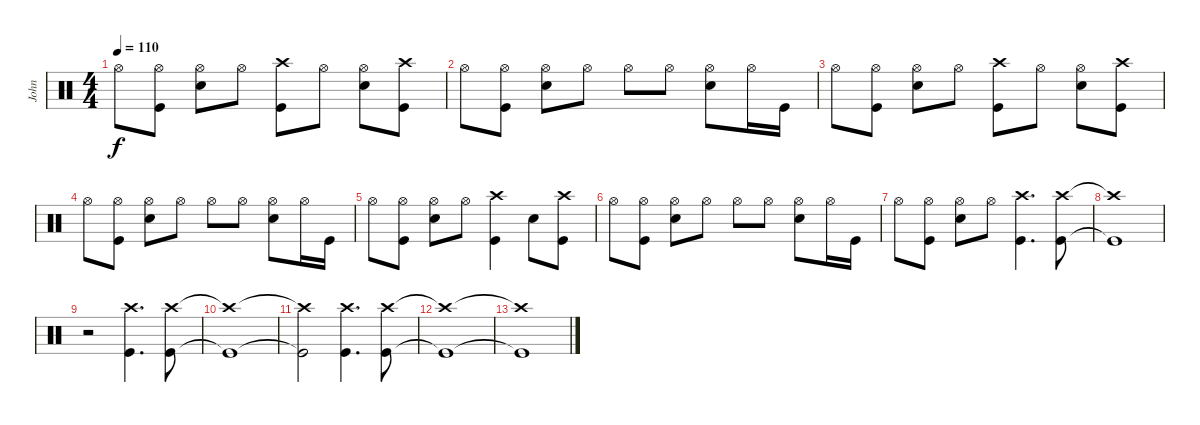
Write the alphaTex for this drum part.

\track ("John" "John") {instrument percussion}
\staff {score}
\articulation defaults
\ts (4 4)
\tempo 110
\clef neutral
\ks c "Hi-Hat (open)".8{dy f}
("Hi-Hat (open)" "Kick (hit)").8 ("Hi-Hat (open)" "Snare (hit) 2").8 "Hi-Hat (open)".8 ("Crash high (hit)" "Kick (hit)").8 "Hi-Hat (open)".8 ("Hi-Hat (open)" "Snare (hit) 2").8 ("Crash high (hit)" "Kick (hit)").8 |
"Hi-Hat (open)".8 ("Hi-Hat (open)" "Kick (hit)").8 ("Hi-Hat (open)" "Snare (hit) 2").8 "Hi-Hat (open)".8 "Hi-Hat (open)".8 "Hi-Hat (open)".8 ("Hi-Hat (open)" "Snare (hit) 2").8 "Hi-Hat (open)".16 "Kick (hit)".16 |
"Hi-Hat (open)".8 ("Hi-Hat (open)" "Kick (hit)").8 ("Hi-Hat (open)" "Snare (hit) 2").8 "Hi-Hat (open)".8 ("Crash high (hit)" "Kick (hit)").8 "Hi-Hat (open)".8 ("Hi-Hat (open)" "Snare (hit) 2").8 ("Crash high (hit)" "Kick (hit)").8 |
"Hi-Hat (open)".8 ("Hi-Hat (open)" "Kick (hit)").8 ("Hi-Hat (open)" "Snare (hit) 2").8 "Hi-Hat (open)".8 "Hi-Hat (open)".8 "Hi-Hat (open)".8 ("Hi-Hat (open)" "Snare (hit) 2").8 "Hi-Hat (open)".16 "Kick (hit)".16 |
"Hi-Hat (open)".8 ("Hi-Hat (open)" "Kick (hit)").8 ("Hi-Hat (open)" "Snare (hit) 2").8 "Hi-Hat (open)".8 ("Crash high (hit)" "Kick (hit)").4 "Snare (hit) 2".8 ("Crash high (hit)" "Kick (hit)").8 |
"Hi-Hat (open)".8 ("Hi-Hat (open)" "Kick (hit)").8 ("Hi-Hat (open)" "Snare (hit) 2").8 "Hi-Hat (open)".8 "Hi-Hat (open)".8 "Hi-Hat (open)".8 ("Hi-Hat (open)" "Snare (hit) 2").8 "Hi-Hat (open)".16 "Kick (hit)".16 |
"Hi-Hat (open)".8 ("Hi-Hat (open)" "Kick (hit)").8 ("Hi-Hat (open)" "Snare (hit) 2").8 "Hi-Hat (open)".8 ("Crash high (hit)" "Kick (hit)").4{d} ("Crash high (hit)" "Kick (hit)").8 |
("Crash high (hit)"{t} "Kick (hit)"{t}).1 |
r.2 ("Crash high (hit)" "Kick (hit)").4{d} ("Crash high (hit)" "Kick (hit)").8 |
("Crash high (hit)"{t} "Kick (hit)"{t}).1 |
("Crash high (hit)"{t} "Kick (hit)"{t}).2 ("Crash high (hit)" "Kick (hit)").4{d} ("Crash high (hit)" "Kick (hit)").8 |
("Crash high (hit)"{t} "Kick (hit)"{t}).1 |
("Crash high (hit)"{t} "Kick (hit)"{t}).1
